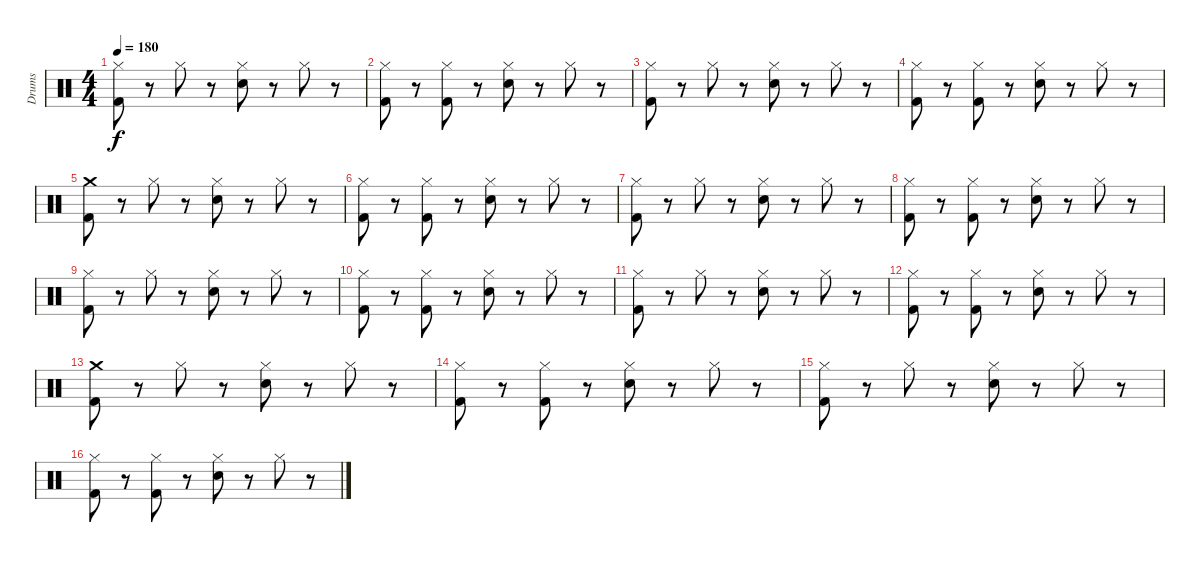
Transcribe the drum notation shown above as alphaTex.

\track ("Drums" "Drums") {instrument percussion}
\staff {score}
\articulation defaults
\ts (4 4)
\tempo 180
\clef neutral
\ks c
("Hi-Hat (closed)" "Kick (hit) 2").8{dy f} r.8 "Hi-Hat (closed)".8 r.8 ("Hi-Hat (closed)" "Electric Snare (hit)").8 r.8 "Hi-Hat (closed)".8 r.8 |
("Hi-Hat (closed)" "Kick (hit) 2").8 r.8 ("Hi-Hat (closed)" "Kick (hit) 2").8 r.8 ("Hi-Hat (closed)" "Electric Snare (hit)").8 r.8 "Hi-Hat (closed)".8 r.8 |
("Hi-Hat (closed)" "Kick (hit) 2").8 r.8 "Hi-Hat (closed)".8 r.8 ("Hi-Hat (closed)" "Electric Snare (hit)").8 r.8 "Hi-Hat (closed)".8 r.8 |
("Hi-Hat (closed)" "Kick (hit) 2").8 r.8 ("Hi-Hat (closed)" "Kick (hit) 2").8 r.8 ("Hi-Hat (closed)" "Electric Snare (hit)").8 r.8 "Hi-Hat (closed)".8 r.8 |
("Crash medium (hit)" "Kick (hit) 2").8 r.8 "Hi-Hat (closed)".8 r.8 ("Hi-Hat (closed)" "Electric Snare (hit)").8 r.8 "Hi-Hat (closed)".8 r.8 |
("Hi-Hat (closed)" "Kick (hit) 2").8 r.8 ("Hi-Hat (closed)" "Kick (hit) 2").8 r.8 ("Hi-Hat (closed)" "Electric Snare (hit)").8 r.8 "Hi-Hat (closed)".8 r.8 |
("Hi-Hat (closed)" "Kick (hit) 2").8 r.8 "Hi-Hat (closed)".8 r.8 ("Hi-Hat (closed)" "Electric Snare (hit)").8 r.8 "Hi-Hat (closed)".8 r.8 |
("Hi-Hat (closed)" "Kick (hit) 2").8 r.8 ("Hi-Hat (closed)" "Kick (hit) 2").8 r.8 ("Hi-Hat (closed)" "Electric Snare (hit)").8 r.8 "Hi-Hat (closed)".8 r.8 |
("Hi-Hat (closed)" "Kick (hit) 2").8 r.8 "Hi-Hat (closed)".8 r.8 ("Hi-Hat (closed)" "Electric Snare (hit)").8 r.8 "Hi-Hat (closed)".8 r.8 |
("Hi-Hat (closed)" "Kick (hit) 2").8 r.8 ("Hi-Hat (closed)" "Kick (hit) 2").8 r.8 ("Hi-Hat (closed)" "Electric Snare (hit)").8 r.8 "Hi-Hat (closed)".8 r.8 |
("Hi-Hat (closed)" "Kick (hit) 2").8 r.8 "Hi-Hat (closed)".8 r.8 ("Hi-Hat (closed)" "Electric Snare (hit)").8 r.8 "Hi-Hat (closed)".8 r.8 |
("Hi-Hat (closed)" "Kick (hit) 2").8 r.8 ("Hi-Hat (closed)" "Kick (hit) 2").8 r.8 ("Hi-Hat (closed)" "Electric Snare (hit)").8 r.8 "Hi-Hat (closed)".8 r.8 |
("Crash medium (hit)" "Kick (hit) 2").8 r.8 "Hi-Hat (closed)".8 r.8 ("Hi-Hat (closed)" "Electric Snare (hit)").8 r.8 "Hi-Hat (closed)".8 r.8 |
("Hi-Hat (closed)" "Kick (hit) 2").8 r.8 ("Hi-Hat (closed)" "Kick (hit) 2").8 r.8 ("Hi-Hat (closed)" "Electric Snare (hit)").8 r.8 "Hi-Hat (closed)".8 r.8 |
("Hi-Hat (closed)" "Kick (hit) 2").8 r.8 "Hi-Hat (closed)".8 r.8 ("Hi-Hat (closed)" "Electric Snare (hit)").8 r.8 "Hi-Hat (closed)".8 r.8 |
("Hi-Hat (closed)" "Kick (hit) 2").8 r.8 ("Hi-Hat (closed)" "Kick (hit) 2").8 r.8 ("Hi-Hat (closed)" "Electric Snare (hit)").8 r.8 "Hi-Hat (closed)".8 r.8
